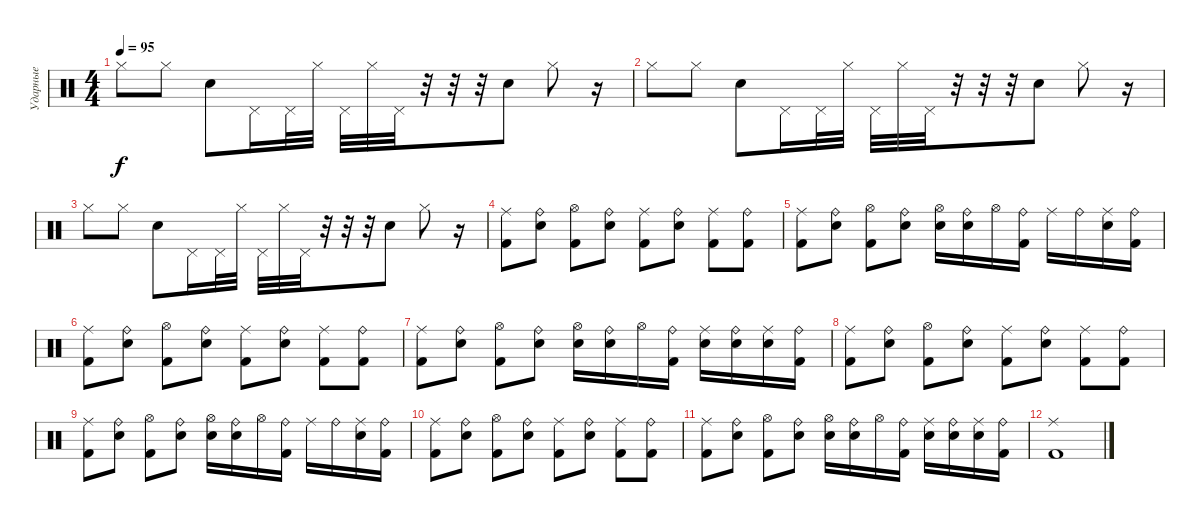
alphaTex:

\track ("Ударные" "Ударные") {instrument percussion}
\staff {score}
\articulation defaults
\ts (4 4)
\tempo 95
\clef neutral
\ks c "Hi-Hat (closed)".8{dy f} "Hi-Hat (closed)".8 "Snare (hit) 2".8 "Pedal Hi-Hat (hit)".16 "Pedal Hi-Hat (hit)".32 "Hi-Hat (closed)".32 "Pedal Hi-Hat (hit)".32 "Hi-Hat (closed)".32 "Pedal Hi-Hat (hit)".32
r.32 r.32 r.32 "Snare (hit) 2".8 "Hi-Hat (closed)".8 r.16 |
"Hi-Hat (closed)".8 "Hi-Hat (closed)".8 "Snare (hit) 2".8 "Pedal Hi-Hat (hit)".16 "Pedal Hi-Hat (hit)".32 "Hi-Hat (closed)".32 "Pedal Hi-Hat (hit)".32 "Hi-Hat (closed)".32 "Pedal Hi-Hat (hit)".32 r.32 r.32 r.32 "Snare (hit) 2".8 "Hi-Hat (closed)".8 r.16 |
"Hi-Hat (closed)".8 "Hi-Hat (closed)".8 "Snare (hit) 2".8 "Pedal Hi-Hat (hit)".16 "Pedal Hi-Hat (hit)".32 "Hi-Hat (closed)".32 "Pedal Hi-Hat (hit)".32 "Hi-Hat (closed)".32 "Pedal Hi-Hat (hit)".32 r.32 r.32 r.32 "Snare (hit) 2".8 "Hi-Hat (closed)".8 r.16 |
("Ride (middle)" "Kick (hit) 2").8 ("Ride (bell)" "Snare (hit) 2").8 ("Hi-Hat (open)" "Kick (hit) 2").8 ("Ride (bell)" "Snare (hit) 2").8 ("Ride (middle)" "Kick (hit) 2").8 ("Ride (bell)" "Snare (hit) 2").8 ("Ride (middle)" "Kick (hit) 2").8 ("Ride (bell)" "Kick (hit) 2").8 |
("Ride (middle)" "Kick (hit) 2").8 ("Ride (bell)" "Snare (hit) 2").8 ("Hi-Hat (open)" "Kick (hit) 2").8 ("Ride (bell)" "Snare (hit) 2").8 ("Hi-Hat (open)" "Snare (hit) 2").16 ("Ride (bell)" "Snare (hit) 2").16 "Hi-Hat (open)".16 ("Ride (bell)" "Kick (hit) 2").16 "Ride (middle)".16 "Ride (bell)".16 ("Ride (middle)" "Snare (hit) 2").16 ("Ride (bell)" "Kick (hit) 2").16 |
("Ride (middle)" "Kick (hit) 2").8 ("Ride (bell)" "Snare (hit) 2").8 ("Hi-Hat (open)" "Kick (hit) 2").8 ("Ride (bell)" "Snare (hit) 2").8 ("Ride (middle)" "Kick (hit) 2").8 ("Ride (bell)" "Snare (hit) 2").8 ("Ride (middle)" "Kick (hit) 2").8 ("Ride (bell)" "Kick (hit) 2").8 |
("Ride (middle)" "Kick (hit) 2").8 ("Ride (bell)" "Snare (hit) 2").8 ("Hi-Hat (open)" "Kick (hit) 2").8 ("Ride (bell)" "Snare (hit) 2").8 ("Hi-Hat (open)" "Snare (hit) 2").16 ("Ride (bell)" "Snare (hit) 2").16 "Hi-Hat (open)".16 ("Ride (bell)" "Kick (hit) 2").16 ("Ride (middle)" "Snare (hit) 2").16 ("Ride (bell)" "Snare (hit) 2").16 ("Ride (middle)" "Snare (hit) 2").16 ("Ride (bell)" "Kick (hit) 2").16 |
("Ride (middle)" "Kick (hit) 2").8 ("Ride (bell)" "Snare (hit) 2").8 ("Hi-Hat (open)" "Kick (hit) 2").8 ("Ride (bell)" "Snare (hit) 2").8 ("Ride (middle)" "Kick (hit) 2").8 ("Ride (bell)" "Snare (hit) 2").8 ("Ride (middle)" "Kick (hit) 2").8 ("Ride (bell)" "Kick (hit) 2").8 |
("Ride (middle)" "Kick (hit) 2").8 ("Ride (bell)" "Snare (hit) 2").8 ("Hi-Hat (open)" "Kick (hit) 2").8 ("Ride (bell)" "Snare (hit) 2").8 ("Hi-Hat (open)" "Snare (hit) 2").16 ("Ride (bell)" "Snare (hit) 2").16 "Hi-Hat (open)".16 ("Ride (bell)" "Kick (hit) 2").16 "Ride (middle)".16 "Ride (bell)".16 ("Ride (middle)" "Snare (hit) 2").16 ("Ride (bell)" "Kick (hit) 2").16 |
("Ride (middle)" "Kick (hit) 2").8 ("Ride (bell)" "Snare (hit) 2").8 ("Hi-Hat (open)" "Kick (hit) 2").8 ("Ride (bell)" "Snare (hit) 2").8 ("Ride (middle)" "Kick (hit) 2").8 ("Ride (bell)" "Snare (hit) 2").8 ("Ride (middle)" "Kick (hit) 2").8 ("Ride (bell)" "Kick (hit) 2").8 |
("Ride (middle)" "Kick (hit) 2").8 ("Ride (bell)" "Snare (hit) 2").8 ("Hi-Hat (open)" "Kick (hit) 2").8 ("Ride (bell)" "Snare (hit) 2").8 ("Hi-Hat (open)" "Snare (hit) 2").16 ("Ride (bell)" "Snare (hit) 2").16 "Hi-Hat (open)".16 ("Ride (bell)" "Kick (hit) 2").16 ("Ride (middle)" "Snare (hit) 2").16 ("Ride (bell)" "Snare (hit) 2").16 ("Ride (middle)" "Snare (hit) 2").16 ("Ride (bell)" "Kick (hit) 2").16 |
("Ride (middle)" "Kick (hit) 2").1
